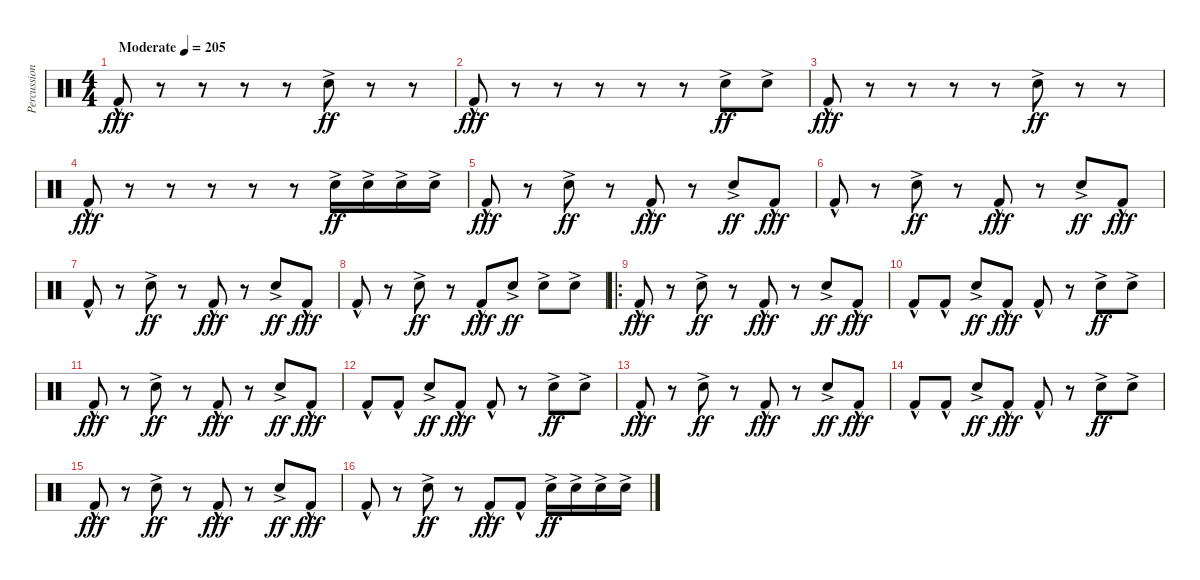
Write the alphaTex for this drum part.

\track ("Percussion" "Percussion") {instrument percussion}
\staff {score}
\articulation defaults
\ts (4 4)
\tempo (205 "Moderate")
\clef neutral
\ks c "Kick (hit) 2"{hac}.8{dy fff}
r.8 r.8 r.8 r.8 "Snare (hit) 2"{ac}.8{dy ff} r.8 r.8 |
"Kick (hit) 2"{hac}.8{dy fff} r.8 r.8 r.8 r.8 r.8 "Snare (hit) 2"{ac}.8{dy ff} "Snare (hit) 2"{ac}.8 |
"Kick (hit) 2"{hac}.8{dy fff} r.8 r.8 r.8 r.8 "Snare (hit) 2"{ac}.8{dy ff} r.8 r.8 |
"Kick (hit) 2"{hac}.8{dy fff} r.8 r.8 r.8 r.8 r.8 "Snare (hit) 2"{ac}.16{dy ff} "Snare (hit) 2"{ac}.16 "Snare (hit) 2"{ac}.16 "Snare (hit) 2"{ac}.16 |
"Kick (hit) 2"{hac}.8{dy fff} r.8 "Snare (hit) 2"{ac}.8{dy ff} r.8 "Kick (hit) 2"{hac}.8{dy fff} r.8 "Snare (hit) 2"{ac}.8{dy ff} "Kick (hit) 2"{hac}.8{dy fff} |
"Kick (hit) 2"{hac}.8 r.8 "Snare (hit) 2"{ac}.8{dy ff} r.8 "Kick (hit) 2"{hac}.8{dy fff} r.8 "Snare (hit) 2"{ac}.8{dy ff} "Kick (hit) 2"{hac}.8{dy fff} |
"Kick (hit) 2"{hac}.8 r.8 "Snare (hit) 2"{ac}.8{dy ff} r.8 "Kick (hit) 2"{hac}.8{dy fff} r.8 "Snare (hit) 2"{ac}.8{dy ff} "Kick (hit) 2"{hac}.8{dy fff} |
"Kick (hit) 2"{hac}.8 r.8 "Snare (hit) 2"{ac}.8{dy ff} r.8 "Kick (hit) 2"{hac}.8{dy fff} "Snare (hit) 2"{ac}.8{dy ff} "Snare (hit) 2"{ac}.8 "Snare (hit) 2"{ac}.8 |
\ro "Kick (hit) 2"{hac}.8{dy fff}
r.8 "Snare (hit) 2"{ac}.8{dy ff} r.8 "Kick (hit) 2"{hac}.8{dy fff} r.8 "Snare (hit) 2"{ac}.8{dy ff} "Kick (hit) 2"{hac}.8{dy fff} |
"Kick (hit) 2"{hac}.8 "Kick (hit) 2"{hac}.8 "Snare (hit) 2"{ac}.8{dy ff} "Kick (hit) 2"{hac}.8{dy fff} "Kick (hit) 2"{hac}.8 r.8 "Snare (hit) 2"{ac}.8{dy ff} "Snare (hit) 2"{ac}.8 |
"Kick (hit) 2"{hac}.8{dy fff} r.8 "Snare (hit) 2"{ac}.8{dy ff} r.8 "Kick (hit) 2"{hac}.8{dy fff} r.8 "Snare (hit) 2"{ac}.8{dy ff} "Kick (hit) 2"{hac}.8{dy fff} |
"Kick (hit) 2"{hac}.8 "Kick (hit) 2"{hac}.8 "Snare (hit) 2"{ac}.8{dy ff} "Kick (hit) 2"{hac}.8{dy fff} "Kick (hit) 2"{hac}.8 r.8 "Snare (hit) 2"{ac}.8{dy ff} "Snare (hit) 2"{ac}.8 |
"Kick (hit) 2"{hac}.8{dy fff} r.8 "Snare (hit) 2"{ac}.8{dy ff} r.8 "Kick (hit) 2"{hac}.8{dy fff} r.8 "Snare (hit) 2"{ac}.8{dy ff} "Kick (hit) 2"{hac}.8{dy fff} |
"Kick (hit) 2"{hac}.8 "Kick (hit) 2"{hac}.8 "Snare (hit) 2"{ac}.8{dy ff} "Kick (hit) 2"{hac}.8{dy fff} "Kick (hit) 2"{hac}.8 r.8 "Snare (hit) 2"{ac}.8{dy ff} "Snare (hit) 2"{ac}.8 |
"Kick (hit) 2"{hac}.8{dy fff} r.8 "Snare (hit) 2"{ac}.8{dy ff} r.8 "Kick (hit) 2"{hac}.8{dy fff} r.8 "Snare (hit) 2"{ac}.8{dy ff} "Kick (hit) 2"{hac}.8{dy fff} |
"Kick (hit) 2"{hac}.8 r.8 "Snare (hit) 2"{ac}.8{dy ff} r.8 "Kick (hit) 2"{hac}.8{dy fff} "Kick (hit) 2"{hac}.8 "Snare (hit) 2"{ac}.16{dy ff} "Snare (hit) 2"{ac}.16 "Snare (hit) 2"{ac}.16 "Snare (hit) 2"{ac}.16
